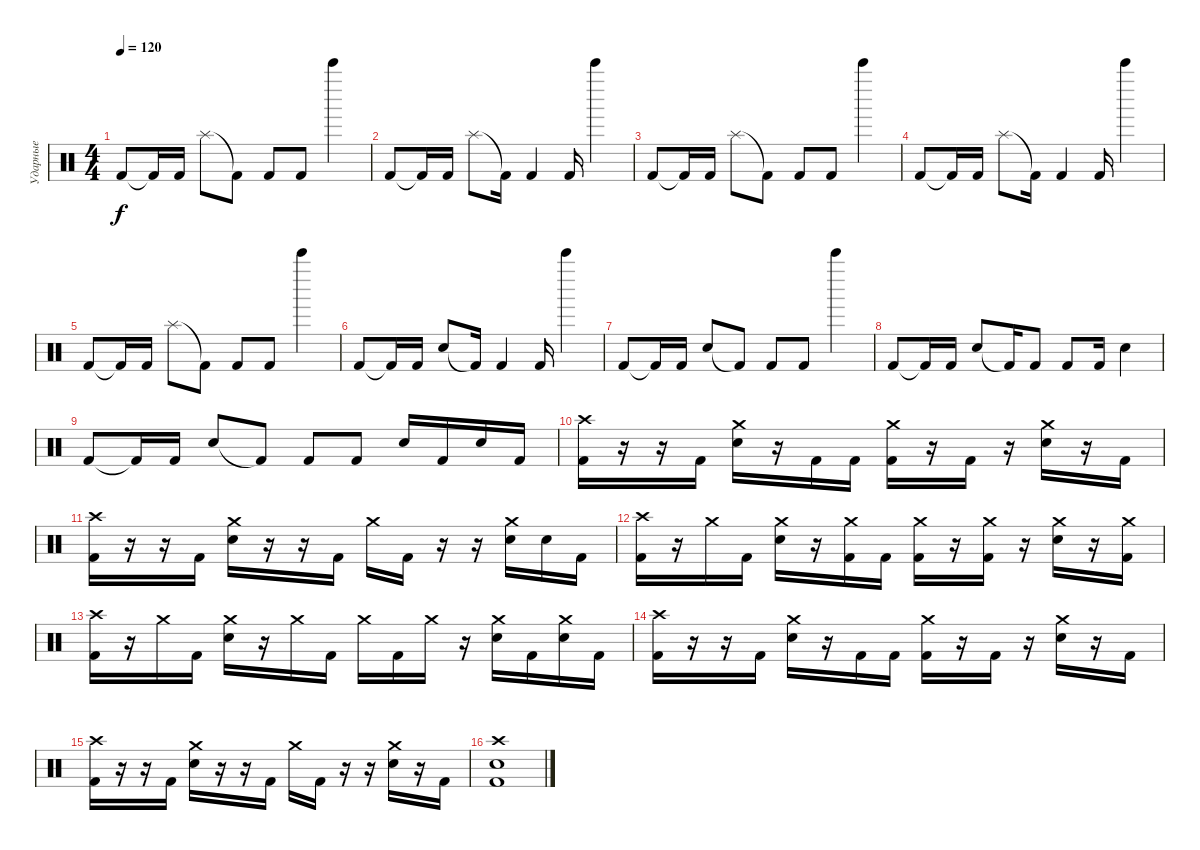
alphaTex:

\track ("Ударные" "Ударные") {instrument percussion}
\staff {score}
\articulation defaults
\ts (4 4)
\tempo 120
\clef neutral
\ks c "Kick (hit) 2".8{dy f} "Kick (hit) 2"{t}.16 "Kick (hit) 2".16 "Splash (hit)".8 "Kick (hit) 2"{t}.8 "Kick (hit) 2".8 "Kick (hit) 2".8 "Bell Tree (hit)".4
|
"Kick (hit) 2".8 "Kick (hit) 2"{t}.16 "Kick (hit) 2".16 "Splash (hit)".8 "Kick (hit) 2"{t}.16 "Kick (hit) 2".4 "Kick (hit) 2".16 "Bell Tree (hit)".4 |
"Kick (hit) 2".8 "Kick (hit) 2"{t}.16 "Kick (hit) 2".16 "Splash (hit)".8 "Kick (hit) 2"{t}.8 "Kick (hit) 2".8 "Kick (hit) 2".8 "Bell Tree (hit)".4 |
"Kick (hit) 2".8 "Kick (hit) 2"{t}.16 "Kick (hit) 2".16 "Splash (hit)".8 "Kick (hit) 2"{t}.16 "Kick (hit) 2".4 "Kick (hit) 2".16 "Bell Tree (hit)".4 |
"Kick (hit) 2".8 "Kick (hit) 2"{t}.16 "Kick (hit) 2".16 "Splash (hit)".8 "Kick (hit) 2"{t}.8 "Kick (hit) 2".8 "Kick (hit) 2".8 "Bell Tree (hit)".4 |
"Kick (hit) 2".8 "Kick (hit) 2"{t}.16 "Kick (hit) 2".16 "Electric Snare (hit)".8 "Kick (hit) 2"{t}.16 "Kick (hit) 2".4 "Kick (hit) 2".16 "Bell Tree (hit)".4 |
"Kick (hit) 2".8 "Kick (hit) 2"{t}.16 "Kick (hit) 2".16 "Electric Snare (hit)".8 "Kick (hit) 2"{t}.8 "Kick (hit) 2".8 "Kick (hit) 2".8 "Bell Tree (hit)".4 |
"Kick (hit) 2".8 "Kick (hit) 2"{t}.16 "Kick (hit) 2".16 "Electric Snare (hit)".8 "Kick (hit) 2"{t}.16 "Kick (hit) 2".8 "Kick (hit) 2".8 "Kick (hit) 2".16 "Electric Snare (hit)".4 |
"Kick (hit) 2".8 "Kick (hit) 2"{t}.16 "Kick (hit) 2".16 "Electric Snare (hit)".8 "Kick (hit) 2"{t}.8 "Kick (hit) 2".8 "Kick (hit) 2".8 "Electric Snare (hit)".16 "Kick (hit) 2".16 "Electric Snare (hit)".16 "Kick (hit) 2".16 |
("Crash high (hit)" "Kick (hit) 2").16 r.16 r.16 "Kick (hit) 2".16 ("Crash medium (hit)" "Electric Snare (hit)").16 r.16 "Kick (hit) 2".16 "Kick (hit) 2".16 ("Crash medium (hit)" "Kick (hit) 2").16 r.16 "Kick (hit) 2".16 r.16 ("Crash medium (hit)" "Electric Snare (hit)").16 r.16 "Kick (hit) 2".16 |
("Crash high (hit)" "Kick (hit) 2").16 r.16 r.16 "Kick (hit) 2".16 ("Crash medium (hit)" "Electric Snare (hit)").16 r.16 r.16 "Kick (hit) 2".16 "Crash medium (hit)".16 "Kick (hit) 2".16 r.16 r.16 ("Crash medium (hit)" "Electric Snare (hit)").16 "Snare (hit)".16 "Kick (hit) 2".16 |
("Crash high (hit)" "Kick (hit) 2").16 r.16 "Crash medium (hit)".16 "Kick (hit) 2".16 ("Crash medium (hit)" "Electric Snare (hit)").16 r.16 ("Crash medium (hit)" "Kick (hit) 2").16 "Kick (hit) 2".16 ("Crash medium (hit)" "Kick (hit) 2").16 r.16 ("Crash medium (hit)" "Kick (hit) 2").16 r.16 ("Crash medium (hit)" "Electric Snare (hit)").16 r.16 ("Crash medium (hit)" "Kick (hit) 2").16 |
("Crash high (hit)" "Kick (hit) 2").16 r.16 "Crash medium (hit)".16 "Kick (hit) 2".16 ("Crash medium (hit)" "Electric Snare (hit)").16 r.16 "Crash medium (hit)".16 "Kick (hit) 2".16 "Crash medium (hit)".16 "Kick (hit) 2".16 "Crash medium (hit)".16 r.16 ("Crash medium (hit)" "Electric Snare (hit)").16 "Kick (hit) 2".16 ("Crash medium (hit)" "Electric Snare (hit)").16 "Kick (hit) 2".16 |
("Crash high (hit)" "Kick (hit) 2").16 r.16 r.16 "Kick (hit) 2".16 ("Crash medium (hit)" "Electric Snare (hit)").16 r.16 "Kick (hit) 2".16 "Kick (hit) 2".16 ("Crash medium (hit)" "Kick (hit) 2").16 r.16 "Kick (hit) 2".16 r.16 ("Crash medium (hit)" "Electric Snare (hit)").16 r.16 "Kick (hit) 2".16 |
("Crash high (hit)" "Kick (hit) 2").16 r.16 r.16 "Kick (hit) 2".16 ("Crash medium (hit)" "Electric Snare (hit)").16 r.16 r.16 "Kick (hit) 2".16 "Crash medium (hit)".16 "Kick (hit) 2".16 r.16 r.16 ("Crash medium (hit)" "Electric Snare (hit)").16 r.16 "Kick (hit) 2".16 |
("Crash high (hit)" "Kick (hit) 2" "Snare (hit) 2").1
